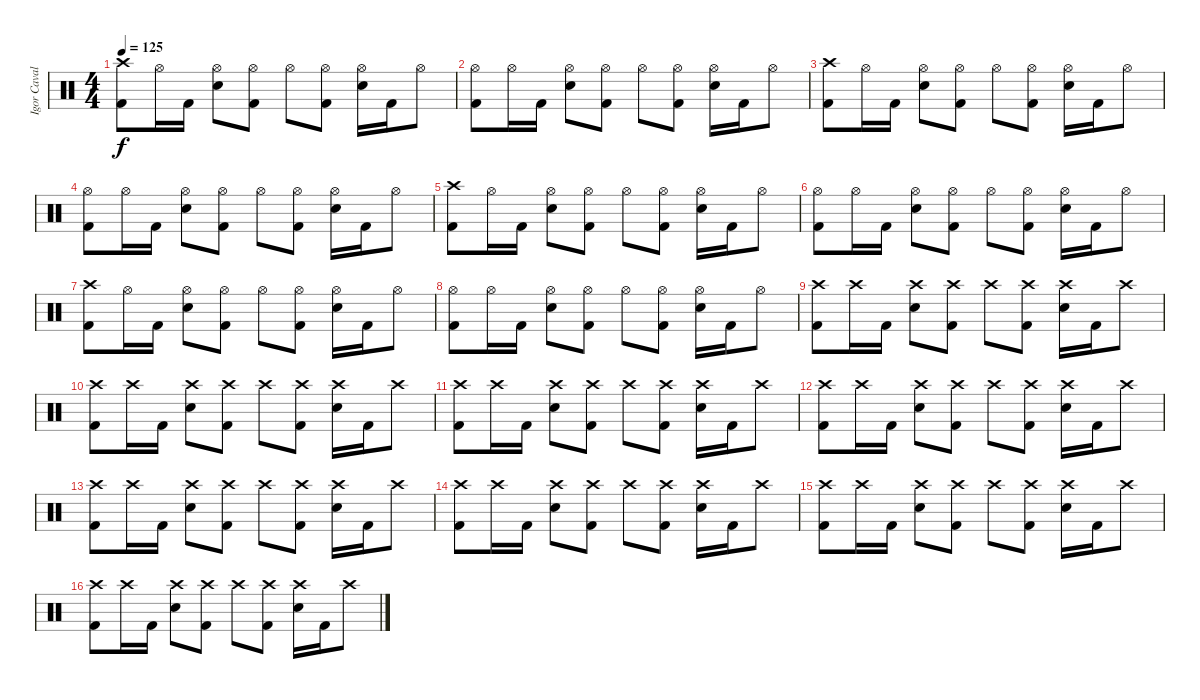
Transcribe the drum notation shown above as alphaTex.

\track ("Igor Cavalera" "Igor Caval") {instrument percussion}
\staff {score}
\articulation defaults
\ts (4 4)
\tempo 125
\clef neutral
\ks c
("Crash high (hit)" "Kick (hit) 2").8{dy f} "Hi-Hat (open)".16 "Kick (hit) 2".16 ("Hi-Hat (open)" "Electric Snare (hit)").8 ("Hi-Hat (open)" "Kick (hit) 2").8 "Hi-Hat (open)".8 ("Hi-Hat (open)" "Kick (hit) 2").8 ("Hi-Hat (open)" "Electric Snare (hit)").16 "Kick (hit) 2".16 "Hi-Hat (open)".8 |
("Hi-Hat (open)" "Kick (hit) 2").8 "Hi-Hat (open)".16 "Kick (hit) 2".16 ("Hi-Hat (open)" "Electric Snare (hit)").8 ("Hi-Hat (open)" "Kick (hit) 2").8 "Hi-Hat (open)".8 ("Hi-Hat (open)" "Kick (hit) 2").8 ("Hi-Hat (open)" "Electric Snare (hit)").16 "Kick (hit) 2".16 "Hi-Hat (open)".8 |
("Crash high (hit)" "Kick (hit) 2").8 "Hi-Hat (open)".16 "Kick (hit) 2".16 ("Hi-Hat (open)" "Electric Snare (hit)").8 ("Hi-Hat (open)" "Kick (hit) 2").8 "Hi-Hat (open)".8 ("Hi-Hat (open)" "Kick (hit) 2").8 ("Hi-Hat (open)" "Electric Snare (hit)").16 "Kick (hit) 2".16 "Hi-Hat (open)".8 |
("Hi-Hat (open)" "Kick (hit) 2").8 "Hi-Hat (open)".16 "Kick (hit) 2".16 ("Hi-Hat (open)" "Electric Snare (hit)").8 ("Hi-Hat (open)" "Kick (hit) 2").8 "Hi-Hat (open)".8 ("Hi-Hat (open)" "Kick (hit) 2").8 ("Hi-Hat (open)" "Electric Snare (hit)").16 "Kick (hit) 2".16 "Hi-Hat (open)".8 |
("Crash high (hit)" "Kick (hit) 2").8 "Hi-Hat (open)".16 "Kick (hit) 2".16 ("Hi-Hat (open)" "Electric Snare (hit)").8 ("Hi-Hat (open)" "Kick (hit) 2").8 "Hi-Hat (open)".8 ("Hi-Hat (open)" "Kick (hit) 2").8 ("Hi-Hat (open)" "Electric Snare (hit)").16 "Kick (hit) 2".16 "Hi-Hat (open)".8 |
("Hi-Hat (open)" "Kick (hit) 2").8 "Hi-Hat (open)".16 "Kick (hit) 2".16 ("Hi-Hat (open)" "Electric Snare (hit)").8 ("Hi-Hat (open)" "Kick (hit) 2").8 "Hi-Hat (open)".8 ("Hi-Hat (open)" "Kick (hit) 2").8 ("Hi-Hat (open)" "Electric Snare (hit)").16 "Kick (hit) 2".16 "Hi-Hat (open)".8 |
("Crash high (hit)" "Kick (hit) 2").8 "Hi-Hat (open)".16 "Kick (hit) 2".16 ("Hi-Hat (open)" "Electric Snare (hit)").8 ("Hi-Hat (open)" "Kick (hit) 2").8 "Hi-Hat (open)".8 ("Hi-Hat (open)" "Kick (hit) 2").8 ("Hi-Hat (open)" "Electric Snare (hit)").16 "Kick (hit) 2".16 "Hi-Hat (open)".8 |
("Hi-Hat (open)" "Kick (hit) 2").8 "Hi-Hat (open)".16 "Kick (hit) 2".16 ("Hi-Hat (open)" "Electric Snare (hit)").8 ("Hi-Hat (open)" "Kick (hit) 2").8 "Hi-Hat (open)".8 ("Hi-Hat (open)" "Kick (hit) 2").8 ("Hi-Hat (open)" "Electric Snare (hit)").16 "Kick (hit) 2".16 "Hi-Hat (open)".8 |
("Crash high (hit)" "Kick (hit) 2").8 "Crash high (hit)".16 "Kick (hit) 2".16 ("Crash high (hit)" "Electric Snare (hit)").8 ("Crash high (hit)" "Kick (hit) 2").8 "Crash high (hit)".8 ("Crash high (hit)" "Kick (hit) 2").8 ("Crash high (hit)" "Electric Snare (hit)").16 "Kick (hit) 2".16 "Crash high (hit)".8 |
("Crash high (hit)" "Kick (hit) 2").8 "Crash high (hit)".16 "Kick (hit) 2".16 ("Crash high (hit)" "Electric Snare (hit)").8 ("Crash high (hit)" "Kick (hit) 2").8 "Crash high (hit)".8 ("Crash high (hit)" "Kick (hit) 2").8 ("Crash high (hit)" "Electric Snare (hit)").16 "Kick (hit) 2".16 "Crash high (hit)".8 |
("Crash high (hit)" "Kick (hit) 2").8 "Crash high (hit)".16 "Kick (hit) 2".16 ("Crash high (hit)" "Electric Snare (hit)").8 ("Crash high (hit)" "Kick (hit) 2").8 "Crash high (hit)".8 ("Crash high (hit)" "Kick (hit) 2").8 ("Crash high (hit)" "Electric Snare (hit)").16 "Kick (hit) 2".16 "Crash high (hit)".8 |
("Crash high (hit)" "Kick (hit) 2").8 "Crash high (hit)".16 "Kick (hit) 2".16 ("Crash high (hit)" "Electric Snare (hit)").8 ("Crash high (hit)" "Kick (hit) 2").8 "Crash high (hit)".8 ("Crash high (hit)" "Kick (hit) 2").8 ("Crash high (hit)" "Electric Snare (hit)").16 "Kick (hit) 2".16 "Crash high (hit)".8 |
("Crash high (hit)" "Kick (hit) 2").8 "Crash high (hit)".16 "Kick (hit) 2".16 ("Crash high (hit)" "Electric Snare (hit)").8 ("Crash high (hit)" "Kick (hit) 2").8 "Crash high (hit)".8 ("Crash high (hit)" "Kick (hit) 2").8 ("Crash high (hit)" "Electric Snare (hit)").16 "Kick (hit) 2".16 "Crash high (hit)".8 |
("Crash high (hit)" "Kick (hit) 2").8 "Crash high (hit)".16 "Kick (hit) 2".16 ("Crash high (hit)" "Electric Snare (hit)").8 ("Crash high (hit)" "Kick (hit) 2").8 "Crash high (hit)".8 ("Crash high (hit)" "Kick (hit) 2").8 ("Crash high (hit)" "Electric Snare (hit)").16 "Kick (hit) 2".16 "Crash high (hit)".8 |
("Crash high (hit)" "Kick (hit) 2").8 "Crash high (hit)".16 "Kick (hit) 2".16 ("Crash high (hit)" "Electric Snare (hit)").8 ("Crash high (hit)" "Kick (hit) 2").8 "Crash high (hit)".8 ("Crash high (hit)" "Kick (hit) 2").8 ("Crash high (hit)" "Electric Snare (hit)").16 "Kick (hit) 2".16 "Crash high (hit)".8 |
("Crash high (hit)" "Kick (hit) 2").8 "Crash high (hit)".16 "Kick (hit) 2".16 ("Crash high (hit)" "Electric Snare (hit)").8 ("Crash high (hit)" "Kick (hit) 2").8 "Crash high (hit)".8 ("Crash high (hit)" "Kick (hit) 2").8 ("Crash high (hit)" "Electric Snare (hit)").16 "Kick (hit) 2".16 "Crash high (hit)".8
